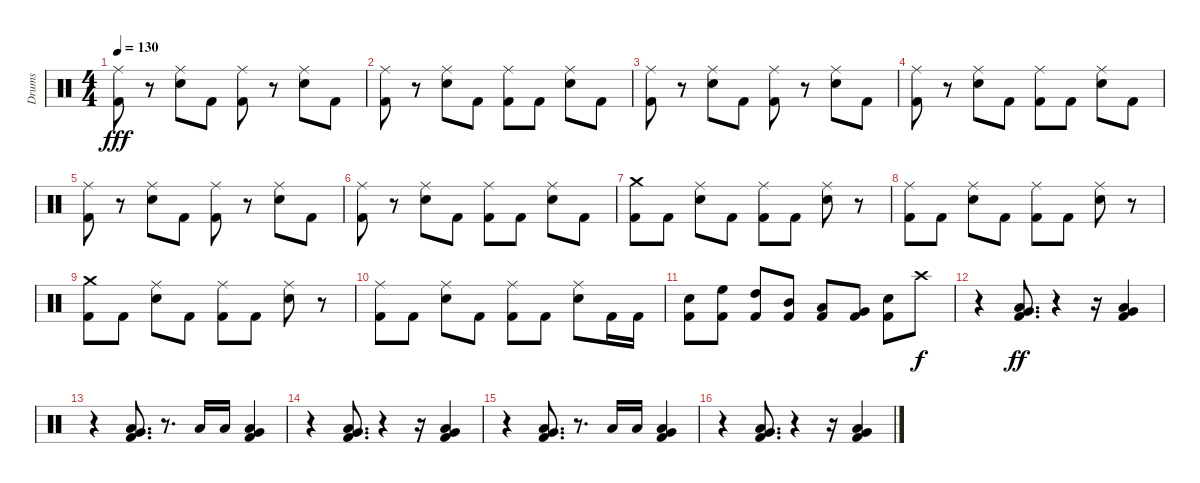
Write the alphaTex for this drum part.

\track ("Drums" "Drums") {instrument percussion}
\staff {score}
\articulation defaults
\ts (4 4)
\tempo 130
\clef neutral
\ks c
("Ride (middle)" "Kick (hit) 2").8{dy fff} r.8 ("Ride (middle)" "Electric Snare (hit)").8 "Kick (hit) 2".8 ("Ride (middle)" "Kick (hit) 2").8 r.8 ("Ride (middle)" "Electric Snare (hit)").8 "Kick (hit) 2".8 |
("Ride (middle)" "Kick (hit) 2").8 r.8 ("Ride (middle)" "Electric Snare (hit)").8 "Kick (hit) 2".8 ("Ride (middle)" "Kick (hit) 2").8 "Kick (hit) 2".8 ("Ride (middle)" "Electric Snare (hit)").8 "Kick (hit) 2".8 |
("Ride (middle)" "Kick (hit) 2").8 r.8 ("Ride (middle)" "Electric Snare (hit)").8 "Kick (hit) 2".8 ("Ride (middle)" "Kick (hit) 2").8 r.8 ("Ride (middle)" "Electric Snare (hit)").8 "Kick (hit) 2".8 |
("Ride (middle)" "Kick (hit) 2").8 r.8 ("Ride (middle)" "Electric Snare (hit)").8 "Kick (hit) 2".8 ("Ride (middle)" "Kick (hit) 2").8 "Kick (hit) 2".8 ("Ride (middle)" "Electric Snare (hit)").8 "Kick (hit) 2".8 |
("Ride (middle)" "Kick (hit) 2").8 r.8 ("Ride (middle)" "Electric Snare (hit)").8 "Kick (hit) 2".8 ("Ride (middle)" "Kick (hit) 2").8 r.8 ("Ride (middle)" "Electric Snare (hit)").8 "Kick (hit) 2".8 |
("Ride (middle)" "Kick (hit) 2").8 r.8 ("Ride (middle)" "Electric Snare (hit)").8 "Kick (hit) 2".8 ("Ride (middle)" "Kick (hit) 2").8 "Kick (hit) 2".8 ("Ride (middle)" "Electric Snare (hit)").8 "Kick (hit) 2".8 |
("Crash medium (hit)" "Kick (hit) 2").8 "Kick (hit) 2".8 ("Electric Snare (hit)" "Ride (middle)").8 "Kick (hit) 2".8 ("Ride (middle)" "Kick (hit) 2").8 "Kick (hit) 2".8 ("Ride (middle)" "Electric Snare (hit)").8 r.8 |
("Kick (hit) 2" "Ride (middle)").8 "Kick (hit) 2".8 ("Electric Snare (hit)" "Ride (middle)").8 "Kick (hit) 2".8 ("Kick (hit) 2" "Ride (middle)").8 "Kick (hit) 2".8 ("Electric Snare (hit)" "Ride (middle)").8 r.8 |
("Kick (hit) 2" "Crash medium (hit)").8 "Kick (hit) 2".8 ("Electric Snare (hit)" "Ride (middle)").8 "Kick (hit) 2".8 ("Kick (hit) 2" "Ride (middle)").8 "Kick (hit) 2".8 ("Electric Snare (hit)" "Ride (middle)").8 r.8 |
("Ride (middle)" "Kick (hit) 2").8 "Kick (hit) 2".8 ("Ride (middle)" "Electric Snare (hit)").8 "Kick (hit) 2".8 ("Ride (middle)" "Kick (hit) 2").8 "Kick (hit) 2".8 ("Ride (middle)" "Electric Snare (hit)").8 "Kick (hit) 2".16 "Kick (hit) 2".16 |
("Kick (hit) 2" "Electric Snare (hit)").8 ("Kick (hit) 2" "High Floor Tom (hit)").8 ("Kick (hit) 2" "High Tom (hit)").8 ("Kick (hit) 2" "Mid Tom (hit)").8 ("Kick (hit) 2" "Low Tom (hit)").8 ("Kick (hit) 2" "Very Low Tom (hit)").8 ("Kick (hit) 2" "Electric Snare (hit)").8 "Crash high (hit)".8{dy f} |
r.4 ("Low Tom (hit)" "Very Low Tom (hit)" "Kick (hit) 2").8{d dy ff} r.4 r.16 ("Low Tom (hit)" "Very Low Tom (hit)" "Kick (hit) 2").4 |
r.4 ("Low Tom (hit)" "Very Low Tom (hit)" "Kick (hit) 2").8{d} r.8{d} "Low Tom (hit)".16 "Low Tom (hit)".16 ("Low Tom (hit)" "Very Low Tom (hit)" "Kick (hit) 2").4 |
r.4 ("Low Tom (hit)" "Very Low Tom (hit)" "Kick (hit) 2").8{d} r.4 r.16 ("Low Tom (hit)" "Very Low Tom (hit)" "Kick (hit) 2").4 |
r.4 ("Low Tom (hit)" "Very Low Tom (hit)" "Kick (hit) 2").8{d} r.8{d} "Low Tom (hit)".16 "Low Tom (hit)".16 ("Low Tom (hit)" "Very Low Tom (hit)" "Kick (hit) 2").4 |
r.4 ("Low Tom (hit)" "Very Low Tom (hit)" "Kick (hit) 2").8{d} r.4 r.16 ("Low Tom (hit)" "Very Low Tom (hit)" "Kick (hit) 2").4
